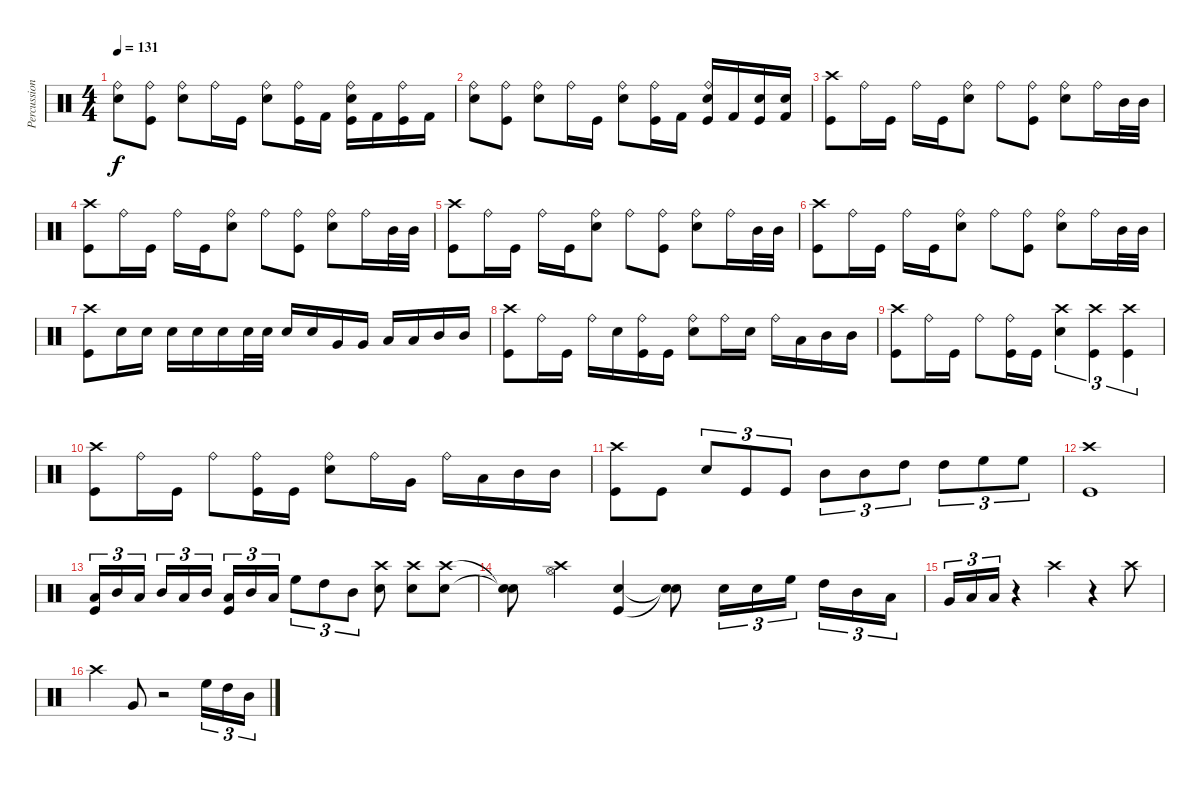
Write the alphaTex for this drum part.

\track ("Percussion" "Percussion") {instrument percussion}
\staff {score}
\articulation defaults
\ts (4 4)
\tempo 131
\clef neutral
\ks c
("Snare (hit) 2" "Ride (bell)").8{dy f} ("Ride (bell)" "Kick (hit)").8 ("Ride (bell)" "Snare (hit) 2").8 "Ride (bell)".16 "Kick (hit)".16 ("Ride (bell)" "Snare (hit) 2").8 ("Ride (bell)" "Kick (hit)").16 "Kick (hit) 2".16 ("Ride (bell)" "Snare (hit) 2" "Kick (hit)").16 "Kick (hit) 2".16 ("Ride (bell)" "Kick (hit)").16 "Kick (hit) 2".16 |
("Snare (hit) 2" "Ride (bell)").8 ("Ride (bell)" "Kick (hit)").8 ("Ride (bell)" "Snare (hit) 2").8 "Ride (bell)".16 "Kick (hit)".16 ("Ride (bell)" "Snare (hit) 2").8 ("Ride (bell)" "Kick (hit)").16 "Kick (hit) 2".16 ("Ride (bell)" "Snare (hit) 2" "Kick (hit)").16 "Kick (hit) 2".16 ("Snare (hit) 2" "Kick (hit)").16 ("Snare (hit) 2" "Kick (hit) 2").16 |
("Crash high (hit)" "Kick (hit)").8 "Ride (bell)".16 "Kick (hit)".16 "Ride (bell)".16 "Kick (hit)".16 ("Ride (bell)" "Snare (hit) 2").8 "Ride (bell)".8 ("Ride (bell)" "Kick (hit)").8 ("Ride (bell)" "Snare (hit) 2").8 "Ride (bell)".16 "Mid Tom (hit)".32 "Mid Tom (hit)".32 |
("Crash high (hit)" "Kick (hit)").8 "Ride (bell)".16 "Kick (hit)".16 "Ride (bell)".16 "Kick (hit)".16 ("Ride (bell)" "Snare (hit) 2").8 "Ride (bell)".8 ("Ride (bell)" "Kick (hit)").8 ("Ride (bell)" "Snare (hit) 2").8 "Ride (bell)".16 "Mid Tom (hit)".32 "Mid Tom (hit)".32 |
("Crash high (hit)" "Kick (hit)").8 "Ride (bell)".16 "Kick (hit)".16 "Ride (bell)".16 "Kick (hit)".16 ("Ride (bell)" "Snare (hit) 2").8 "Ride (bell)".8 ("Ride (bell)" "Kick (hit)").8 ("Ride (bell)" "Snare (hit) 2").8 "Ride (bell)".16 "Mid Tom (hit)".32 "Mid Tom (hit)".32 |
("Crash high (hit)" "Kick (hit)").8 "Ride (bell)".16 "Kick (hit)".16 "Ride (bell)".16 "Kick (hit)".16 ("Ride (bell)" "Snare (hit) 2").8 "Ride (bell)".8 ("Ride (bell)" "Kick (hit)").8 ("Ride (bell)" "Snare (hit) 2").8 "Ride (bell)".16 "Mid Tom (hit)".32 "Mid Tom (hit)".32 |
("Kick (hit)" "Crash high (hit)").8 "Snare (hit) 2".16 "Snare (hit) 2".16 "Snare (hit) 2".16 "Snare (hit) 2".16 "Snare (hit) 2".16 "Snare (hit) 2".32 "Snare (hit) 2".32 "Snare (hit) 2".16 "Snare (hit) 2".16 "Very Low Tom (hit)".16 "Very Low Tom (hit)".16 "Low Tom (hit)".16 "Low Tom (hit)".16 "Mid Tom (hit)".16 "Mid Tom (hit)".16 |
("Crash high (hit)" "Kick (hit)").8 "Ride (bell)".16 "Kick (hit)".16 "Ride (bell)".16 "Electric Snare (hit)".16 ("Ride (bell)" "Kick (hit)").16 "Kick (hit)".16 ("Ride (bell)" "Snare (hit) 2").8 "Ride (bell)".16 "Electric Snare (hit)".16 "Ride (bell)".16 "Low Tom (hit)".16 "Mid Tom (hit)".16 "Mid Tom (hit)".16 |
("Crash high (hit)" "Kick (hit)").8 "Ride (bell)".16 "Kick (hit)".16 "Ride (bell)".8 ("Ride (bell)" "Kick (hit)").16 "Kick (hit)".16 ("Crash high (hit)" "Snare (hit) 2").4{tu (3 2)} ("Crash high (hit)" "Kick (hit)").4{tu (3 2)} ("Crash high (hit)" "Kick (hit)").4{tu (3 2)} |
("Crash high (hit)" "Kick (hit)").8 "Ride (bell)".16 "Kick (hit)".16 "Ride (bell)".8 ("Ride (bell)" "Kick (hit)").16 "Kick (hit)".16 ("Snare (hit) 2" "Ride (bell)").8 "Ride (bell)".16 "Very Low Tom (hit)".16 "Ride (bell)".16 "Low Tom (hit)".16 "Mid Tom (hit)".16 "Mid Tom (hit)".16 |
("Kick (hit)" "Crash high (hit)").8 "Kick (hit)".8 "Snare (hit) 2".8{tu (3 2)} "Kick (hit)".8{tu (3 2)} "Kick (hit)".8{tu (3 2)} "Mid Tom (hit)".8{tu (3 2)} "Mid Tom (hit)".8{tu (3 2)} "High Tom (hit)".8{tu (3 2)} "High Tom (hit)".8{tu (3 2)} "High Floor Tom (hit)".8{tu (3 2)} "High Floor Tom (hit)".8{tu (3 2)} |
("Crash high (hit)" "Kick (hit)").1 |
("Kick (hit)" "Low Tom (hit)").16{tu (3 2)} "Mid Tom (hit)".16{tu (3 2)} "Low Tom (hit)".16{tu (3 2)} "Mid Tom (hit)".16{tu (3 2)} "Low Tom (hit)".16{tu (3 2)} "Mid Tom (hit)".16{tu (3 2)} ("Kick (hit)" "Low Tom (hit)").16{tu (3 2)} "Mid Tom (hit)".16{tu (3 2)} "Low Tom (hit)".16{tu (3 2)} "High Floor Tom (hit)".8{tu (3 2)} "High Tom (hit)".8{tu (3 2)} "Mid Tom (hit)".8{tu (3 2)} ("Crash high (hit)" "Snare (hit) 2").8 ("Crash high (hit)" "Snare (hit) 2").8 ("Crash high (hit)" "Snare (hit) 2").8 |
("Snare (hit)"{t} "Snare (hit)"{t}).8 ("Hi-Hat (open)" "Crash high (hit)").4 ("Kick (hit)" "Snare (hit) 2").4 ("Snare (hit)"{t} "Snare (hit)"{t}).8 "Electric Snare (hit)".16{tu (3 2)} "Electric Snare (hit)".16{tu (3 2)} "High Floor Tom (hit)".16{tu (3 2)} "High Tom (hit)".16{tu (3 2)} "Mid Tom (hit)".16{tu (3 2)} "Low Tom (hit)".16{tu (3 2)} |
"Very Low Tom (hit)".16{tu (3 2)} "Low Floor Tom (hit)".16{tu (3 2)} "Low Floor Tom (hit)".16{tu (3 2)} r.4 "Crash high (hit)".4 r.4 "Crash high (hit)".8 |
"Crash high (hit)".4 "Very Low Tom (hit)".8 r.2 "High Floor Tom (hit)".16{tu (3 2)} "High Tom (hit)".16{tu (3 2)} "Mid Tom (hit)".16{tu (3 2)}
